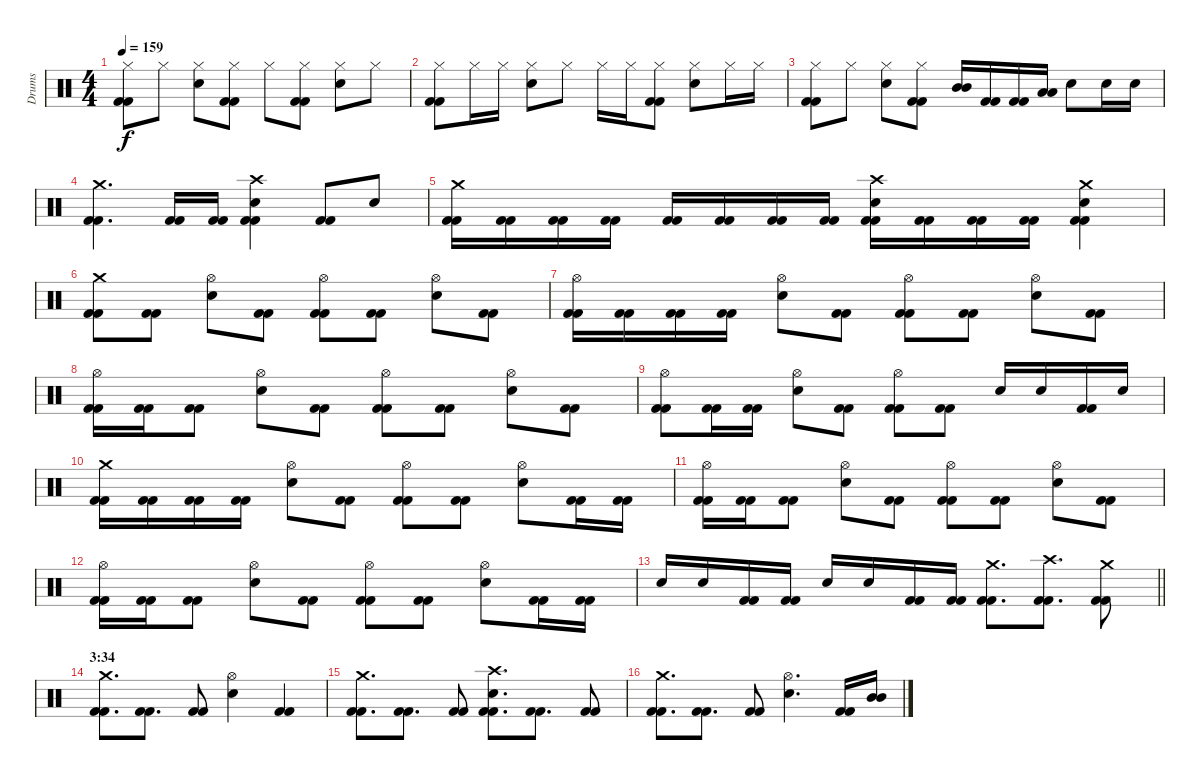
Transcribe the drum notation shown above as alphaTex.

\track ("Drums" "Drums") {instrument percussion}
\staff {score}
\articulation defaults
\ts (4 4)
\tempo 159
\clef neutral
\ks c
("Hi-Hat (closed)" "Kick (hit) 2" "Kick (hit) 2").8{dy f} "Hi-Hat (closed)".8 ("Hi-Hat (closed)" "Electric Snare (hit)").8 ("Hi-Hat (closed)" "Kick (hit) 2" "Kick (hit) 2").8 "Hi-Hat (closed)".8 ("Hi-Hat (closed)" "Kick (hit) 2" "Kick (hit) 2").8 ("Hi-Hat (closed)" "Electric Snare (hit)").8 "Hi-Hat (closed)".8 |
("Hi-Hat (closed)" "Kick (hit) 2" "Kick (hit) 2").8 "Hi-Hat (closed)".16 "Hi-Hat (closed)".16 ("Hi-Hat (closed)" "Electric Snare (hit)").8 "Hi-Hat (closed)".8 "Hi-Hat (closed)".16 "Hi-Hat (closed)".16 ("Hi-Hat (closed)" "Kick (hit) 2" "Kick (hit) 2").8 ("Hi-Hat (closed)" "Electric Snare (hit)").8 "Hi-Hat (closed)".16 "Hi-Hat (closed)".16 |
("Hi-Hat (closed)" "Kick (hit) 2" "Kick (hit) 2").8 "Hi-Hat (closed)".8 ("Hi-Hat (closed)" "Electric Snare (hit)").8 ("Hi-Hat (closed)" "Kick (hit) 2" "Kick (hit) 2").8 ("Mid Tom (hit)" "Mid Tom (hit)").16 ("Kick (hit) 2" "Kick (hit) 2").16 ("Kick (hit) 2" "Kick (hit) 2").16 ("Low Tom (hit)" "Low Tom (hit)").16 "Electric Snare (hit)".8 "Electric Snare (hit)".16 "Electric Snare (hit)".16 |
("Crash medium (hit)" "Kick (hit) 2" "Kick (hit) 2").4{d} ("Kick (hit) 2" "Kick (hit) 2").16 ("Kick (hit) 2" "Kick (hit) 2").16 ("Crash high (hit)" "Electric Snare (hit)" "Kick (hit) 2" "Kick (hit) 2").4 ("Kick (hit) 2" "Kick (hit) 2").8 "Electric Snare (hit)".8 |
("Crash medium (hit)" "Kick (hit) 2" "Kick (hit) 2").16 ("Kick (hit) 2" "Kick (hit) 2").16 ("Kick (hit) 2" "Kick (hit) 2").16 ("Kick (hit) 2" "Kick (hit) 2").16 ("Kick (hit) 2" "Kick (hit) 2").16 ("Kick (hit) 2" "Kick (hit) 2").16 ("Kick (hit) 2" "Kick (hit) 2").16 ("Kick (hit) 2" "Kick (hit) 2").16 ("Crash high (hit)" "Electric Snare (hit)" "Kick (hit) 2" "Kick (hit) 2").16 ("Kick (hit) 2" "Kick (hit) 2").16 ("Kick (hit) 2" "Kick (hit) 2").16 ("Kick (hit) 2" "Kick (hit) 2").16 ("Crash medium (hit)" "Electric Snare (hit)" "Kick (hit) 2" "Kick (hit) 2").4 |
("Crash medium (hit)" "Kick (hit) 2" "Kick (hit) 2").8 ("Kick (hit) 2" "Kick (hit) 2").8 ("Hi-Hat (open)" "Electric Snare (hit)").8 ("Kick (hit) 2" "Kick (hit) 2").8 ("Hi-Hat (open)" "Kick (hit) 2" "Kick (hit) 2").8 ("Kick (hit) 2" "Kick (hit) 2").8 ("Hi-Hat (open)" "Electric Snare (hit)").8 ("Kick (hit) 2" "Kick (hit) 2").8 |
("Hi-Hat (open)" "Kick (hit) 2" "Kick (hit) 2").16 ("Kick (hit) 2" "Kick (hit) 2").16 ("Kick (hit) 2" "Kick (hit) 2").16 ("Kick (hit) 2" "Kick (hit) 2").16 ("Hi-Hat (open)" "Electric Snare (hit)").8 ("Kick (hit) 2" "Kick (hit) 2").8 ("Hi-Hat (open)" "Kick (hit) 2" "Kick (hit) 2").8 ("Kick (hit) 2" "Kick (hit) 2").8 ("Hi-Hat (open)" "Electric Snare (hit)").8 ("Kick (hit) 2" "Kick (hit) 2").8 |
("Hi-Hat (open)" "Kick (hit) 2" "Kick (hit) 2").16 ("Kick (hit) 2" "Kick (hit) 2").16 ("Kick (hit) 2" "Kick (hit) 2").8 ("Hi-Hat (open)" "Electric Snare (hit)").8 ("Kick (hit) 2" "Kick (hit) 2").8 ("Hi-Hat (open)" "Kick (hit) 2" "Kick (hit) 2").8 ("Kick (hit) 2" "Kick (hit) 2").8 ("Hi-Hat (open)" "Electric Snare (hit)").8 ("Kick (hit) 2" "Kick (hit) 2").8 |
("Hi-Hat (open)" "Kick (hit) 2" "Kick (hit) 2").8 ("Kick (hit) 2" "Kick (hit) 2").16 ("Kick (hit) 2" "Kick (hit) 2").16 ("Hi-Hat (open)" "Electric Snare (hit)").8 ("Kick (hit) 2" "Kick (hit) 2").8 ("Hi-Hat (open)" "Kick (hit) 2" "Kick (hit) 2").8 ("Kick (hit) 2" "Kick (hit) 2").8 "Electric Snare (hit)".16 "Electric Snare (hit)".16 ("Kick (hit) 2" "Kick (hit) 2").16 "Electric Snare (hit)".16 |
("Crash medium (hit)" "Kick (hit) 2" "Kick (hit) 2").16 ("Kick (hit) 2" "Kick (hit) 2").16 ("Kick (hit) 2" "Kick (hit) 2").16 ("Kick (hit) 2" "Kick (hit) 2").16 ("Hi-Hat (open)" "Electric Snare (hit)").8 ("Kick (hit) 2" "Kick (hit) 2").8 ("Hi-Hat (open)" "Kick (hit) 2" "Kick (hit) 2").8 ("Kick (hit) 2" "Kick (hit) 2").8 ("Hi-Hat (open)" "Electric Snare (hit)").8 ("Kick (hit) 2" "Kick (hit) 2").16 ("Kick (hit) 2" "Kick (hit) 2").16 |
("Hi-Hat (open)" "Kick (hit) 2" "Kick (hit) 2").16 ("Kick (hit) 2" "Kick (hit) 2").16 ("Kick (hit) 2" "Kick (hit) 2").8 ("Hi-Hat (open)" "Electric Snare (hit)").8 ("Kick (hit) 2" "Kick (hit) 2").8 ("Hi-Hat (open)" "Kick (hit) 2" "Kick (hit) 2").8 ("Kick (hit) 2" "Kick (hit) 2").8 ("Hi-Hat (open)" "Electric Snare (hit)").8 ("Kick (hit) 2" "Kick (hit) 2").8 |
("Hi-Hat (open)" "Kick (hit) 2" "Kick (hit) 2").16 ("Kick (hit) 2" "Kick (hit) 2").16 ("Kick (hit) 2" "Kick (hit) 2").8 ("Hi-Hat (open)" "Electric Snare (hit)").8 ("Kick (hit) 2" "Kick (hit) 2").8 ("Hi-Hat (open)" "Kick (hit) 2" "Kick (hit) 2").8 ("Kick (hit) 2" "Kick (hit) 2").8 ("Hi-Hat (open)" "Electric Snare (hit)").8 ("Kick (hit) 2" "Kick (hit) 2").16 ("Kick (hit) 2" "Kick (hit) 2").16 |
\barLineRight lightlight "Electric Snare (hit)".16 "Electric Snare (hit)".16
("Kick (hit) 2" "Kick (hit) 2").16 ("Kick (hit) 2" "Kick (hit) 2").16 "Electric Snare (hit)".16 "Electric Snare (hit)".16 ("Kick (hit) 2" "Kick (hit) 2").16 ("Kick (hit) 2" "Kick (hit) 2").16 ("Crash medium (hit)" "Kick (hit) 2" "Kick (hit) 2").8{d} ("Crash high (hit)" "Kick (hit) 2" "Kick (hit) 2").8{d} ("Crash medium (hit)" "Kick (hit) 2" "Kick (hit) 2").8 |
\section ("" "3:34")
("Crash medium (hit)" "Kick (hit) 2" "Kick (hit) 2").8{d} ("Kick (hit) 2" "Kick (hit) 2").8{d} ("Kick (hit) 2" "Kick (hit) 2").8 ("Hi-Hat (open)" "Electric Snare (hit)").4 ("Kick (hit) 2" "Kick (hit) 2").4 |
("Crash medium (hit)" "Kick (hit) 2" "Kick (hit) 2").8{d} ("Kick (hit) 2" "Kick (hit) 2").8{d} ("Kick (hit) 2" "Kick (hit) 2").8 ("Crash high (hit)" "Electric Snare (hit)" "Kick (hit) 2" "Kick (hit) 2").8{d} ("Kick (hit) 2" "Kick (hit) 2").8{d} ("Kick (hit) 2" "Kick (hit) 2").8 |
("Crash medium (hit)" "Kick (hit) 2" "Kick (hit) 2").8{d} ("Kick (hit) 2" "Kick (hit) 2").8{d} ("Kick (hit) 2" "Kick (hit) 2").8 ("Hi-Hat (open)" "Electric Snare (hit)").4{d} ("Kick (hit) 2" "Kick (hit) 2").16 ("Mid Tom (hit)" "Mid Tom (hit)").16
